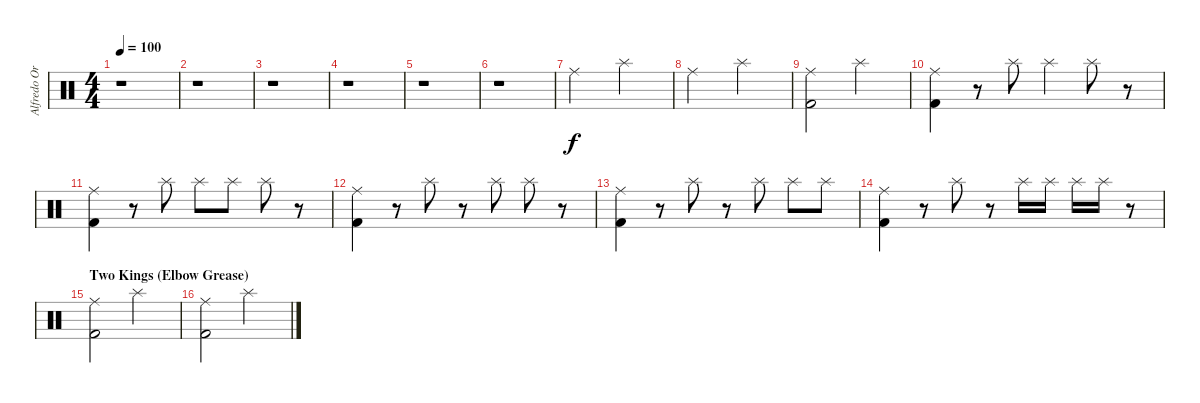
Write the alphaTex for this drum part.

\track ("Alfredo Ortiz (Drums)" "Alfredo Or") {instrument percussion}
\staff {score}
\articulation defaults
\ts (4 4)
\tempo 100
\clef neutral
\ks c
r.1{dy f} |
r.1 |
r.1 |
r.1 |
r.1 |
r.1 |
"Ride (middle)".2{volume 11} "Splash (hit)".2 |
"Ride (middle)".2 "Splash (hit)".2 |
("Ride (middle)" "Kick (hit) 2").2 "Splash (hit)".2 |
("Ride (middle)" "Kick (hit) 2").4 r.8 "Splash (hit)".8 "Splash (hit)".4 "Splash (hit)".8 r.8 |
("Ride (middle)" "Kick (hit) 2").4 r.8 "Splash (hit)".8 "Splash (hit)".8 "Splash (hit)".8 "Splash (hit)".8 r.8 |
("Ride (middle)" "Kick (hit) 2").4 r.8 "Splash (hit)".8 r.8 "Splash (hit)".8 "Splash (hit)".8 r.8 |
("Ride (middle)" "Kick (hit) 2").4 r.8 "Splash (hit)".8 r.8 "Splash (hit)".8 "Splash (hit)".8 "Splash (hit)".8 |
("Ride (middle)" "Kick (hit) 2").4 r.8 "Splash (hit)".8 r.8 "Splash (hit)".16 "Splash (hit)".16 "Splash (hit)".16 "Splash (hit)".16 r.8 |
\section ("" "Two Kings (Elbow Grease)")
("Ride (middle)" "Kick (hit) 2").2 "Splash (hit)".2 |
("Ride (middle)" "Kick (hit) 2").2 "Splash (hit)".2
